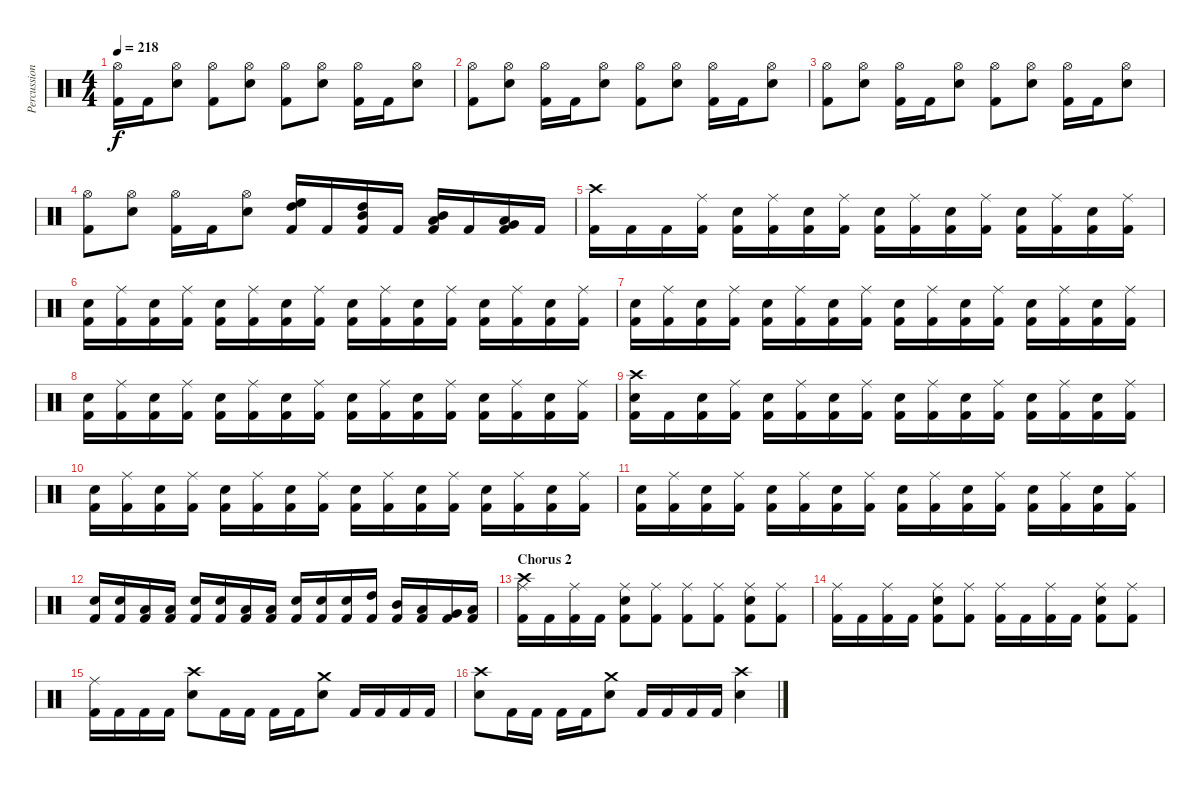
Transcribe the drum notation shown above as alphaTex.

\track ("Percussion" "Percussion") {instrument percussion}
\staff {score}
\articulation defaults
\ts (4 4)
\tempo 218
\clef neutral
\ks c
("Hi-Hat (open)" "Kick (hit) 2").16{dy f} "Kick (hit) 2".16 ("Hi-Hat (open)" "Electric Snare (hit)").8 ("Hi-Hat (open)" "Kick (hit) 2").8 ("Hi-Hat (open)" "Electric Snare (hit)").8 ("Hi-Hat (open)" "Kick (hit) 2").8 ("Hi-Hat (open)" "Electric Snare (hit)").8 ("Hi-Hat (open)" "Kick (hit) 2").16 "Kick (hit) 2".16 ("Hi-Hat (open)" "Electric Snare (hit)").8 |
("Hi-Hat (open)" "Kick (hit) 2").8 ("Hi-Hat (open)" "Electric Snare (hit)").8 ("Hi-Hat (open)" "Kick (hit) 2").16 "Kick (hit) 2".16 ("Hi-Hat (open)" "Electric Snare (hit)").8 ("Hi-Hat (open)" "Kick (hit) 2").8 ("Hi-Hat (open)" "Electric Snare (hit)").8 ("Hi-Hat (open)" "Kick (hit) 2").16 "Kick (hit) 2".16 ("Hi-Hat (open)" "Electric Snare (hit)").8 |
("Hi-Hat (open)" "Kick (hit) 2").8 ("Hi-Hat (open)" "Electric Snare (hit)").8 ("Hi-Hat (open)" "Kick (hit) 2").16 "Kick (hit) 2".16 ("Hi-Hat (open)" "Electric Snare (hit)").8 ("Hi-Hat (open)" "Kick (hit) 2").8 ("Hi-Hat (open)" "Electric Snare (hit)").8 ("Hi-Hat (open)" "Kick (hit) 2").16 "Kick (hit) 2".16 ("Hi-Hat (open)" "Electric Snare (hit)").8 |
("Hi-Hat (open)" "Kick (hit) 2").8 ("Hi-Hat (open)" "Electric Snare (hit)").8 ("Hi-Hat (open)" "Kick (hit) 2").16 "Kick (hit) 2".16 ("Hi-Hat (open)" "Electric Snare (hit)").8 ("High Floor Tom (hit)" "High Tom (hit)" "Kick (hit) 2").16 "Kick (hit) 2".16 ("High Tom (hit)" "Mid Tom (hit)" "Kick (hit) 2").16 "Kick (hit) 2".16 ("Mid Tom (hit)" "Low Tom (hit)" "Kick (hit) 2").16 "Kick (hit) 2".16 ("Low Tom (hit)" "Very Low Tom (hit)" "Kick (hit) 2").16 "Kick (hit) 2".16 |
("Crash high (hit)" "Kick (hit) 2").16 "Kick (hit) 2".16 "Kick (hit) 2".16 ("Ride (middle)" "Kick (hit) 2").16 ("Electric Snare (hit)" "Kick (hit) 2").16 ("Ride (middle)" "Kick (hit) 2").16 ("Electric Snare (hit)" "Kick (hit) 2").16 ("Ride (middle)" "Kick (hit) 2").16 ("Electric Snare (hit)" "Kick (hit) 2").16 ("Ride (middle)" "Kick (hit) 2").16 ("Electric Snare (hit)" "Kick (hit) 2").16 ("Ride (middle)" "Kick (hit) 2").16 ("Electric Snare (hit)" "Kick (hit) 2").16 ("Ride (middle)" "Kick (hit) 2").16 ("Electric Snare (hit)" "Kick (hit) 2").16 ("Ride (middle)" "Kick (hit) 2").16 |
("Electric Snare (hit)" "Kick (hit) 2").16 ("Ride (middle)" "Kick (hit) 2").16 ("Electric Snare (hit)" "Kick (hit) 2").16 ("Ride (middle)" "Kick (hit) 2").16 ("Electric Snare (hit)" "Kick (hit) 2").16 ("Ride (middle)" "Kick (hit) 2").16 ("Electric Snare (hit)" "Kick (hit) 2").16 ("Ride (middle)" "Kick (hit) 2").16 ("Electric Snare (hit)" "Kick (hit) 2").16 ("Ride (middle)" "Kick (hit) 2").16 ("Electric Snare (hit)" "Kick (hit) 2").16 ("Ride (middle)" "Kick (hit) 2").16 ("Electric Snare (hit)" "Kick (hit) 2").16 ("Ride (middle)" "Kick (hit) 2").16 ("Electric Snare (hit)" "Kick (hit) 2").16 ("Ride (middle)" "Kick (hit) 2").16 |
("Electric Snare (hit)" "Kick (hit) 2").16 ("Ride (middle)" "Kick (hit) 2").16 ("Electric Snare (hit)" "Kick (hit) 2").16 ("Ride (middle)" "Kick (hit) 2").16 ("Electric Snare (hit)" "Kick (hit) 2").16 ("Ride (middle)" "Kick (hit) 2").16 ("Electric Snare (hit)" "Kick (hit) 2").16 ("Ride (middle)" "Kick (hit) 2").16 ("Electric Snare (hit)" "Kick (hit) 2").16 ("Ride (middle)" "Kick (hit) 2").16 ("Electric Snare (hit)" "Kick (hit) 2").16 ("Ride (middle)" "Kick (hit) 2").16 ("Electric Snare (hit)" "Kick (hit) 2").16 ("Ride (middle)" "Kick (hit) 2").16 ("Electric Snare (hit)" "Kick (hit) 2").16 ("Ride (middle)" "Kick (hit) 2").16 |
("Electric Snare (hit)" "Kick (hit) 2").16 ("Ride (middle)" "Kick (hit) 2").16 ("Electric Snare (hit)" "Kick (hit) 2").16 ("Ride (middle)" "Kick (hit) 2").16 ("Electric Snare (hit)" "Kick (hit) 2").16 ("Ride (middle)" "Kick (hit) 2").16 ("Electric Snare (hit)" "Kick (hit) 2").16 ("Ride (middle)" "Kick (hit) 2").16 ("Electric Snare (hit)" "Kick (hit) 2").16 ("Ride (middle)" "Kick (hit) 2").16 ("Electric Snare (hit)" "Kick (hit) 2").16 ("Ride (middle)" "Kick (hit) 2").16 ("Electric Snare (hit)" "Kick (hit) 2").16 ("Ride (middle)" "Kick (hit) 2").16 ("Electric Snare (hit)" "Kick (hit) 2").16 ("Ride (middle)" "Kick (hit) 2").16 |
("Crash high (hit)" "Electric Snare (hit)" "Kick (hit) 2").16 "Kick (hit) 2".16 ("Electric Snare (hit)" "Kick (hit) 2").16 ("Ride (middle)" "Kick (hit) 2").16 ("Electric Snare (hit)" "Kick (hit) 2").16 ("Ride (middle)" "Kick (hit) 2").16 ("Electric Snare (hit)" "Kick (hit) 2").16 ("Ride (middle)" "Kick (hit) 2").16 ("Electric Snare (hit)" "Kick (hit) 2").16 ("Ride (middle)" "Kick (hit) 2").16 ("Electric Snare (hit)" "Kick (hit) 2").16 ("Ride (middle)" "Kick (hit) 2").16 ("Electric Snare (hit)" "Kick (hit) 2").16 ("Ride (middle)" "Kick (hit) 2").16 ("Electric Snare (hit)" "Kick (hit) 2").16 ("Ride (middle)" "Kick (hit) 2").16 |
("Electric Snare (hit)" "Kick (hit) 2").16 ("Ride (middle)" "Kick (hit) 2").16 ("Electric Snare (hit)" "Kick (hit) 2").16 ("Ride (middle)" "Kick (hit) 2").16 ("Electric Snare (hit)" "Kick (hit) 2").16 ("Ride (middle)" "Kick (hit) 2").16 ("Electric Snare (hit)" "Kick (hit) 2").16 ("Ride (middle)" "Kick (hit) 2").16 ("Electric Snare (hit)" "Kick (hit) 2").16 ("Ride (middle)" "Kick (hit) 2").16 ("Electric Snare (hit)" "Kick (hit) 2").16 ("Ride (middle)" "Kick (hit) 2").16 ("Electric Snare (hit)" "Kick (hit) 2").16 ("Ride (middle)" "Kick (hit) 2").16 ("Electric Snare (hit)" "Kick (hit) 2").16 ("Ride (middle)" "Kick (hit) 2").16 |
("Electric Snare (hit)" "Kick (hit) 2").16 ("Ride (middle)" "Kick (hit) 2").16 ("Electric Snare (hit)" "Kick (hit) 2").16 ("Ride (middle)" "Kick (hit) 2").16 ("Electric Snare (hit)" "Kick (hit) 2").16 ("Ride (middle)" "Kick (hit) 2").16 ("Electric Snare (hit)" "Kick (hit) 2").16 ("Ride (middle)" "Kick (hit) 2").16 ("Electric Snare (hit)" "Kick (hit) 2").16 ("Ride (middle)" "Kick (hit) 2").16 ("Electric Snare (hit)" "Kick (hit) 2").16 ("Ride (middle)" "Kick (hit) 2").16 ("Electric Snare (hit)" "Kick (hit) 2").16 ("Ride (middle)" "Kick (hit) 2").16 ("Electric Snare (hit)" "Kick (hit) 2").16 ("Ride (middle)" "Kick (hit) 2").16 |
("Electric Snare (hit)" "Kick (hit) 2").16 ("Electric Snare (hit)" "Kick (hit) 2").16 ("Low Tom (hit)" "Kick (hit) 2").16 ("Low Tom (hit)" "Kick (hit) 2").16 ("Electric Snare (hit)" "Kick (hit) 2").16 ("Electric Snare (hit)" "Kick (hit) 2").16 ("Low Tom (hit)" "Kick (hit) 2").16 ("Low Tom (hit)" "Kick (hit) 2").16 ("Electric Snare (hit)" "Kick (hit) 2").16 ("Electric Snare (hit)" "Kick (hit) 2").16 ("Electric Snare (hit)" "Kick (hit) 2").16 ("High Tom (hit)" "Kick (hit) 2").16 ("Mid Tom (hit)" "Kick (hit) 2").16 ("Low Tom (hit)" "Kick (hit) 2").16 ("Very Low Tom (hit)" "Kick (hit) 2").16 ("Low Floor Tom (hit)" "Kick (hit) 2").16 |
\section ("" "Chorus 2")
("Crash high (hit)" "Ride (middle)" "Kick (hit) 2").16 "Kick (hit) 2".16 ("Ride (middle)" "Kick (hit) 2").16 "Kick (hit) 2".16 ("Ride (middle)" "Electric Snare (hit)" "Kick (hit) 2").8 ("Ride (middle)" "Kick (hit) 2").8 ("Ride (middle)" "Kick (hit) 2").8 ("Ride (middle)" "Kick (hit) 2").8 ("Ride (middle)" "Electric Snare (hit)" "Kick (hit) 2").8 ("Ride (middle)" "Kick (hit) 2").8 |
("Ride (middle)" "Kick (hit) 2").16 "Kick (hit) 2".16 ("Ride (middle)" "Kick (hit) 2").16 "Kick (hit) 2".16 ("Ride (middle)" "Electric Snare (hit)" "Kick (hit) 2").8 ("Ride (middle)" "Kick (hit) 2").8 ("Ride (middle)" "Kick (hit) 2").16 "Kick (hit) 2".16 ("Ride (middle)" "Kick (hit) 2").16 "Kick (hit) 2".16 ("Ride (middle)" "Electric Snare (hit)" "Kick (hit) 2").8 ("Ride (middle)" "Kick (hit) 2").8 |
("Ride (middle)" "Kick (hit) 2").16 "Kick (hit) 2".16 "Kick (hit) 2".16 "Kick (hit) 2".16 ("Crash high (hit)" "Electric Snare (hit)").8 "Kick (hit) 2".16 "Kick (hit) 2".16 "Kick (hit) 2".16 "Kick (hit) 2".16 ("Crash medium (hit)" "Electric Snare (hit)").8 "Kick (hit) 2".16 "Kick (hit) 2".16 "Kick (hit) 2".16 "Kick (hit) 2".16 |
("Crash high (hit)" "Electric Snare (hit)").8 "Kick (hit) 2".16 "Kick (hit) 2".16 "Kick (hit) 2".16 "Kick (hit) 2".16 ("Crash medium (hit)" "Electric Snare (hit)").8 "Kick (hit) 2".16 "Kick (hit) 2".16 "Kick (hit) 2".16 "Kick (hit) 2".16 ("Crash high (hit)" "Electric Snare (hit)").4
